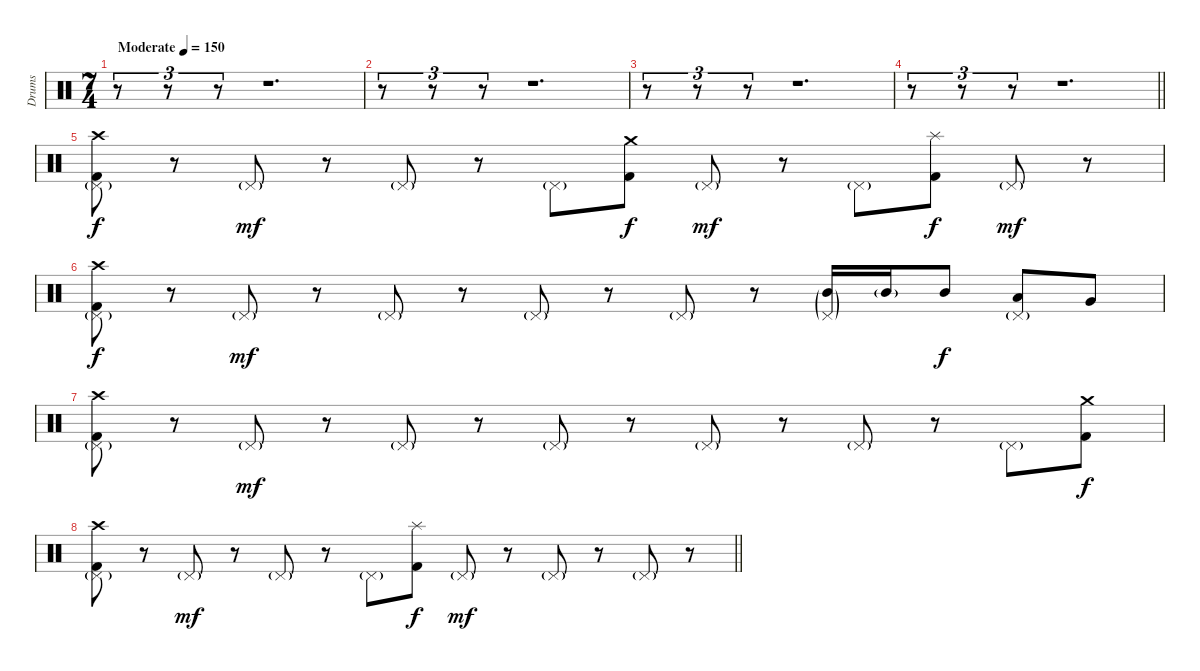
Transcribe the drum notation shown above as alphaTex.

\track ("Drums" "Drums") {instrument percussion}
\staff {score}
\articulation defaults
\ts (7 4)
\section ("" "")
\tempo (150 "Moderate")
\clef neutral
\ks c
r.8{tu (3 2) dy f} r.8{tu (3 2)} r.8{tu (3 2)} r.1{d} |
r.8{tu (3 2)} r.8{tu (3 2)} r.8{tu (3 2)} r.1{d} |
r.8{tu (3 2)} r.8{tu (3 2)} r.8{tu (3 2)} r.1{d} |
\barLineRight lightlight
r.8{tu (3 2)} r.8{tu (3 2)} r.8{tu (3 2)} r.1{d} |
\section ("" "")
("Crash high (hit)" "Pedal Hi-Hat (hit)"{g} "Kick (hit) 2").8 r.8 "Pedal Hi-Hat (hit)"{g}.8{dy mf} r.8 "Pedal Hi-Hat (hit)"{g}.8 r.8 "Pedal Hi-Hat (hit)"{g}.8 ("Crash medium (hit)" "Kick (hit) 2").8{dy f} "Pedal Hi-Hat (hit)"{g}.8{dy mf} r.8 "Pedal Hi-Hat (hit)"{g}.8 ("Splash (hit)" "Kick (hit) 2").8{dy f} "Pedal Hi-Hat (hit)"{g}.8{dy mf} r.8 |
("Crash high (hit)" "Pedal Hi-Hat (hit)"{g} "Kick (hit) 2").8{dy f} r.8 "Pedal Hi-Hat (hit)"{g}.8{dy mf} r.8 "Pedal Hi-Hat (hit)"{g}.8 r.8 "Pedal Hi-Hat (hit)"{g}.8 r.8 "Pedal Hi-Hat (hit)"{g}.8 r.8 ("Mid Tom (hit)"{g} "Pedal Hi-Hat (hit)"{g}).16 "Mid Tom (hit)"{g}.16 "Mid Tom (hit)".8{dy f} ("Pedal Hi-Hat (hit)"{g} "Low Tom (hit)").8 "Very Low Tom (hit)".8 |
("Crash high (hit)" "Pedal Hi-Hat (hit)"{g} "Kick (hit) 2").8 r.8 "Pedal Hi-Hat (hit)"{g}.8{dy mf} r.8 "Pedal Hi-Hat (hit)"{g}.8 r.8 "Pedal Hi-Hat (hit)"{g}.8 r.8 "Pedal Hi-Hat (hit)"{g}.8 r.8 "Pedal Hi-Hat (hit)"{g}.8 r.8 "Pedal Hi-Hat (hit)"{g}.8 ("Crash medium (hit)" "Kick (hit) 2").8{dy f} |
\barLineRight lightlight
("Crash high (hit)" "Pedal Hi-Hat (hit)"{g} "Kick (hit) 2").8 r.8 "Pedal Hi-Hat (hit)"{g}.8{dy mf} r.8 "Pedal Hi-Hat (hit)"{g}.8 r.8 "Pedal Hi-Hat (hit)"{g}.8 ("Splash (hit)" "Kick (hit) 2").8{dy f} "Pedal Hi-Hat (hit)"{g}.8{dy mf} r.8 "Pedal Hi-Hat (hit)"{g}.8 r.8 "Pedal Hi-Hat (hit)"{g}.8 r.8
